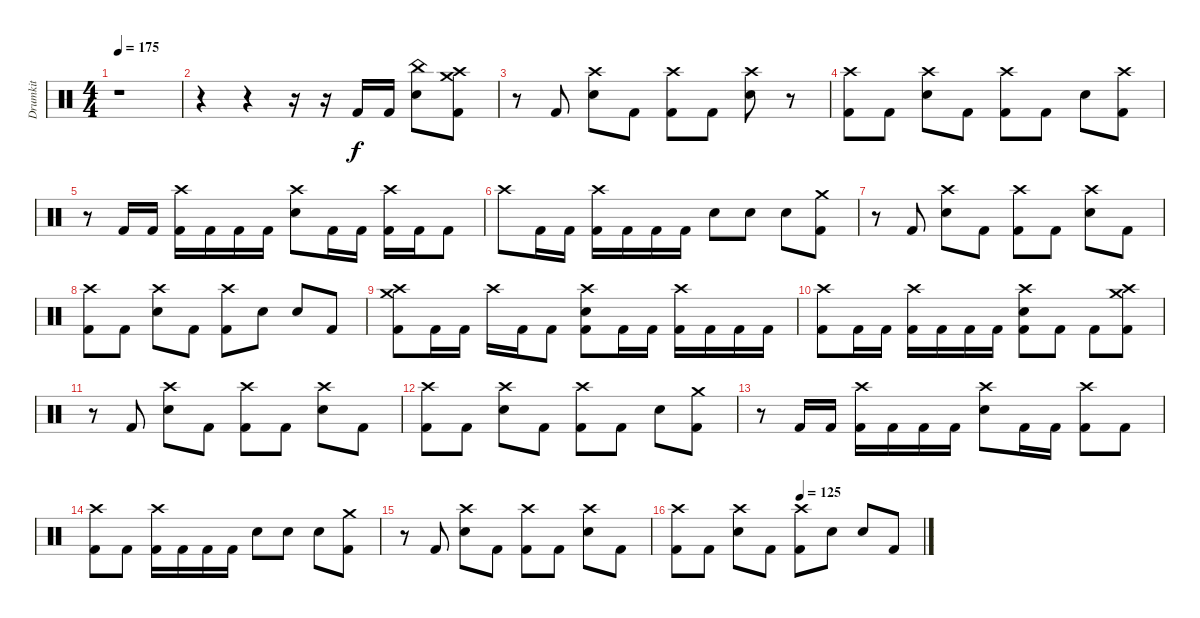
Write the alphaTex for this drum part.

\track ("Drumkit" "Drumkit") {instrument percussion}
\staff {score}
\articulation defaults
\ts (4 4)
\tempo 175
\clef neutral
\ks c
r.1{dy f} |
r.4 r.4 r.16 r.16 "Kick (hit) 2".16 "Kick (hit) 2".16 ("China (hit)" "Electric Snare (hit)").8 ("Crash medium (hit)" "Crash high (hit)" "Kick (hit) 2").8 |
r.8 "Kick (hit) 2".8 ("Crash high (hit)" "Electric Snare (hit)").8 "Kick (hit) 2".8 ("Crash high (hit)" "Kick (hit) 2").8 "Kick (hit) 2".8 ("Crash high (hit)" "Electric Snare (hit)").8 r.8 |
("Crash high (hit)" "Kick (hit) 2").8 "Kick (hit) 2".8 ("Crash high (hit)" "Electric Snare (hit)").8 "Kick (hit) 2".8 ("Crash high (hit)" "Kick (hit) 2").8 "Kick (hit) 2".8 "Electric Snare (hit)".8 ("Crash high (hit)" "Kick (hit) 2").8 |
r.8 "Kick (hit) 2".16 "Kick (hit) 2".16 ("Crash high (hit)" "Kick (hit) 2").16 "Kick (hit) 2".16 "Kick (hit) 2".16 "Kick (hit) 2".16 ("Crash high (hit)" "Electric Snare (hit)").8 "Kick (hit) 2".16 "Kick (hit) 2".16 ("Crash high (hit)" "Kick (hit) 2").16 "Kick (hit) 2".16 "Kick (hit) 2".8 |
"Crash high (hit)".8 "Kick (hit) 2".16 "Kick (hit) 2".16 ("Crash high (hit)" "Kick (hit) 2").16 "Kick (hit) 2".16 "Kick (hit) 2".16 "Kick (hit) 2".16 "Electric Snare (hit)".8 "Electric Snare (hit)".8 "Electric Snare (hit)".8 ("Crash medium (hit)" "Kick (hit) 2").8 |
r.8 "Kick (hit) 2".8 ("Crash high (hit)" "Electric Snare (hit)").8 "Kick (hit) 2".8 ("Crash high (hit)" "Kick (hit) 2").8 "Kick (hit) 2".8 ("Crash high (hit)" "Electric Snare (hit)").8 "Kick (hit) 2".8 |
("Crash high (hit)" "Kick (hit) 2").8 "Kick (hit) 2".8 ("Crash high (hit)" "Electric Snare (hit)").8 "Kick (hit) 2".8 ("Crash high (hit)" "Kick (hit) 2").8 "Electric Snare (hit)".8 "Electric Snare (hit)".8 "Kick (hit) 2".8 |
("Crash medium (hit)" "Crash high (hit)" "Kick (hit) 2").8 "Kick (hit) 2".16 "Kick (hit) 2".16 "Crash high (hit)".16 "Kick (hit) 2".16 "Kick (hit) 2".8 ("Crash high (hit)" "Electric Snare (hit)" "Kick (hit) 2").8 "Kick (hit) 2".16 "Kick (hit) 2".16 ("Crash high (hit)" "Kick (hit) 2").16 "Kick (hit) 2".16 "Kick (hit) 2".16 "Kick (hit) 2".16 |
("Crash high (hit)" "Kick (hit) 2").8 "Kick (hit) 2".16 "Kick (hit) 2".16 ("Crash high (hit)" "Kick (hit) 2").16 "Kick (hit) 2".16 "Kick (hit) 2".16 "Kick (hit) 2".16 ("Crash high (hit)" "Electric Snare (hit)" "Kick (hit) 2").8 "Kick (hit) 2".8 "Kick (hit) 2".8 ("Crash medium (hit)" "Crash high (hit)" "Kick (hit) 2").8 |
r.8 "Kick (hit) 2".8 ("Crash high (hit)" "Electric Snare (hit)").8 "Kick (hit) 2".8 ("Crash high (hit)" "Kick (hit) 2").8 "Kick (hit) 2".8 ("Crash high (hit)" "Electric Snare (hit)").8 "Kick (hit) 2".8 |
("Crash high (hit)" "Kick (hit) 2").8 "Kick (hit) 2".8 ("Crash high (hit)" "Electric Snare (hit)").8 "Kick (hit) 2".8 ("Crash high (hit)" "Kick (hit) 2").8 "Kick (hit) 2".8 "Electric Snare (hit)".8 ("Crash medium (hit)" "Kick (hit) 2").8 |
r.8 "Kick (hit) 2".16 "Kick (hit) 2".16 ("Crash high (hit)" "Kick (hit) 2").16 "Kick (hit) 2".16 "Kick (hit) 2".16 "Kick (hit) 2".16 ("Crash high (hit)" "Electric Snare (hit)").8 "Kick (hit) 2".16 "Kick (hit) 2".16 ("Crash high (hit)" "Kick (hit) 2").8 "Kick (hit) 2".8 |
("Crash high (hit)" "Kick (hit) 2").8 "Kick (hit) 2".8 ("Crash high (hit)" "Kick (hit) 2").16 "Kick (hit) 2".16 "Kick (hit) 2".16 "Kick (hit) 2".16 "Electric Snare (hit)".8 "Electric Snare (hit)".8 "Electric Snare (hit)".8 ("Crash medium (hit)" "Kick (hit) 2").8 |
r.8 "Kick (hit) 2".8 ("Crash high (hit)" "Electric Snare (hit)").8 "Kick (hit) 2".8 ("Crash high (hit)" "Kick (hit) 2").8 "Kick (hit) 2".8 ("Crash high (hit)" "Electric Snare (hit)").8 "Kick (hit) 2".8 |
\tempo (125 0.5)
("Crash high (hit)" "Kick (hit) 2").8 "Kick (hit) 2".8 ("Crash high (hit)" "Electric Snare (hit)").8 "Kick (hit) 2".8 ("Crash high (hit)" "Kick (hit) 2").8 "Electric Snare (hit)".8 "Electric Snare (hit)".8 "Kick (hit) 2".8
